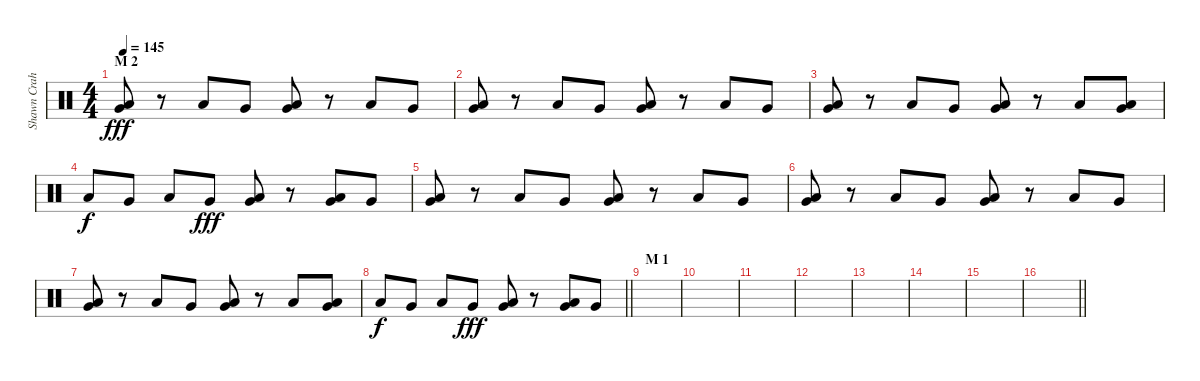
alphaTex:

\track ("Shawn Crahan" "Shawn Crah") {instrument percussion}
\staff {score}
\articulation defaults
\ts (4 4)
\section ("" "M 2")
\tempo 145
\clef neutral
\ks c
("Very Low Tom (hit)" "Low Floor Tom (hit)").8{dy fff} r.8 "Low Floor Tom (hit)".8 "Very Low Tom (hit)".8 ("Very Low Tom (hit)" "Low Floor Tom (hit)").8 r.8 "Low Floor Tom (hit)".8 "Very Low Tom (hit)".8 |
("Very Low Tom (hit)" "Low Floor Tom (hit)").8 r.8 "Low Floor Tom (hit)".8 "Very Low Tom (hit)".8 ("Very Low Tom (hit)" "Low Floor Tom (hit)").8 r.8 "Low Floor Tom (hit)".8 "Very Low Tom (hit)".8 |
("Very Low Tom (hit)" "Low Floor Tom (hit)").8 r.8 "Low Floor Tom (hit)".8 "Very Low Tom (hit)".8 ("Very Low Tom (hit)" "Low Floor Tom (hit)").8 r.8 "Low Floor Tom (hit)".8 ("Very Low Tom (hit)" "Low Floor Tom (hit)").8 |
"Low Floor Tom (hit)".8{dy f} "Very Low Tom (hit)".8 "Low Floor Tom (hit)".8 "Very Low Tom (hit)".8{dy fff} ("Very Low Tom (hit)" "Low Floor Tom (hit)").8 r.8 ("Very Low Tom (hit)" "Low Floor Tom (hit)").8 "Very Low Tom (hit)".8 |
("Very Low Tom (hit)" "Low Floor Tom (hit)").8 r.8 "Low Floor Tom (hit)".8 "Very Low Tom (hit)".8 ("Very Low Tom (hit)" "Low Floor Tom (hit)").8 r.8 "Low Floor Tom (hit)".8 "Very Low Tom (hit)".8 |
("Very Low Tom (hit)" "Low Floor Tom (hit)").8 r.8 "Low Floor Tom (hit)".8 "Very Low Tom (hit)".8 ("Very Low Tom (hit)" "Low Floor Tom (hit)").8 r.8 "Low Floor Tom (hit)".8 "Very Low Tom (hit)".8 |
("Very Low Tom (hit)" "Low Floor Tom (hit)").8 r.8 "Low Floor Tom (hit)".8 "Very Low Tom (hit)".8 ("Very Low Tom (hit)" "Low Floor Tom (hit)").8 r.8 "Low Floor Tom (hit)".8 ("Very Low Tom (hit)" "Low Floor Tom (hit)").8 |
\barLineRight lightlight "Low Floor Tom (hit)".8{dy f} "Very Low Tom (hit)".8 "Low Floor Tom (hit)".8 "Very Low Tom (hit)".8{dy fff}
("Very Low Tom (hit)" "Low Floor Tom (hit)").8 r.8 ("Very Low Tom (hit)" "Low Floor Tom (hit)").8 "Very Low Tom (hit)".8 |
\section ("" "M 1")
|
|
|
|
|
|
|
\barLineRight lightlight
